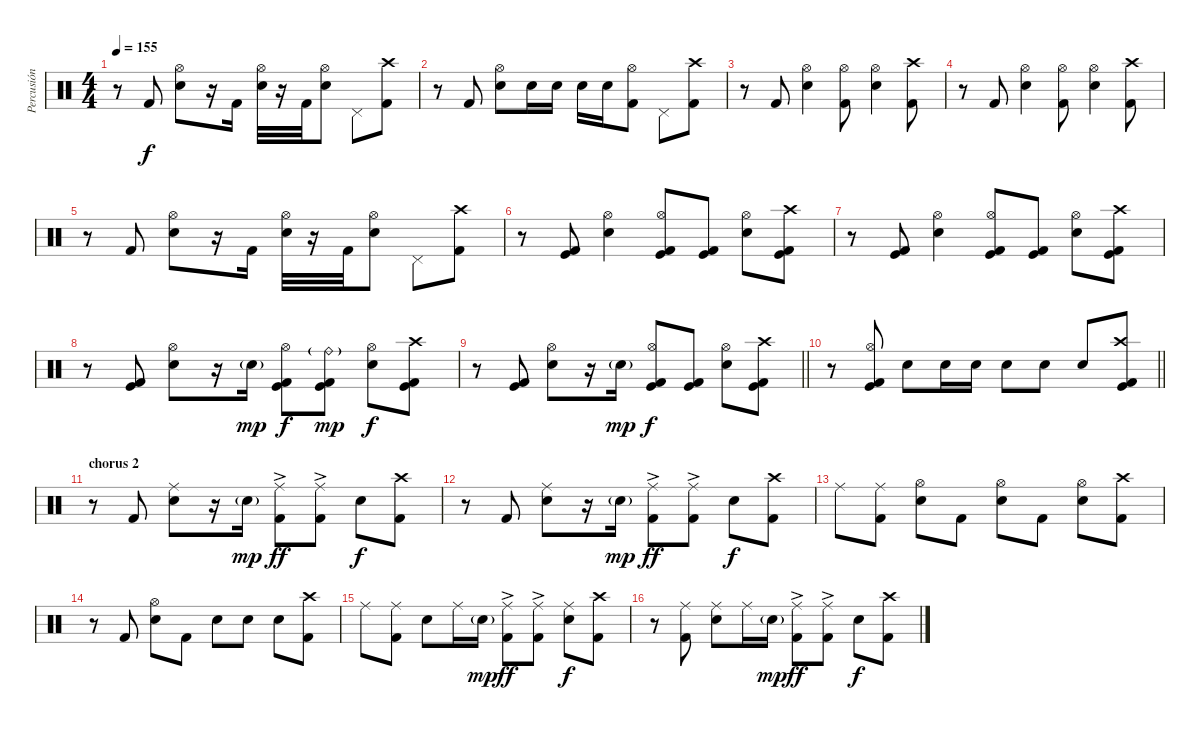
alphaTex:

\track ("Percusión" "Percusión") {instrument percussion}
\staff {score}
\articulation defaults
\ts (4 4)
\tempo 155
\clef neutral
\ks c
r.8{dy f} "Kick (hit) 2".8 ("Hi-Hat (open)" "Snare (hit) 2").8 r.16 "Kick (hit) 2".16 ("Hi-Hat (open)" "Snare (hit) 2").32 r.16 "Kick (hit) 2".32 ("Hi-Hat (open)" "Snare (hit) 2").8 "Pedal Hi-Hat (hit)".8 ("Crash high (hit)" "Kick (hit) 2").8 |
r.8 "Kick (hit) 2".8 ("Hi-Hat (open)" "Snare (hit) 2").8 "Snare (hit) 2".16 "Snare (hit) 2".16 "Snare (hit) 2".16 "Snare (hit) 2".16 ("Hi-Hat (open)" "Kick (hit) 2").8 "Pedal Hi-Hat (hit)".8 ("Crash high (hit)" "Kick (hit) 2").8 |
r.8 "Kick (hit) 2".8 ("Hi-Hat (open)" "Snare (hit) 2").4 ("Hi-Hat (open)" "Kick (hit) 2").8 ("Hi-Hat (open)" "Snare (hit) 2").4 ("Crash high (hit)" "Kick (hit) 2").8 |
r.8 "Kick (hit) 2".8 ("Hi-Hat (open)" "Snare (hit) 2").4 ("Hi-Hat (open)" "Kick (hit) 2").8 ("Hi-Hat (open)" "Snare (hit) 2").4 ("Crash high (hit)" "Kick (hit) 2").8 |
r.8 "Kick (hit) 2".8 ("Hi-Hat (open)" "Snare (hit) 2").8 r.16 "Kick (hit) 2".16 ("Hi-Hat (open)" "Snare (hit) 2").32 r.16 "Kick (hit) 2".32 ("Hi-Hat (open)" "Snare (hit) 2").8 "Pedal Hi-Hat (hit)".8 ("Crash high (hit)" "Kick (hit) 2").8 |
r.8 ("Kick (hit) 2" "Kick (hit)").8 ("Hi-Hat (open)" "Snare (hit) 2").4 ("Hi-Hat (open)" "Kick (hit) 2" "Kick (hit)").8 ("Kick (hit) 2" "Kick (hit)").8 ("Hi-Hat (open)" "Snare (hit) 2").8 ("Crash high (hit)" "Kick (hit) 2" "Kick (hit)").8 |
r.8 ("Kick (hit) 2" "Kick (hit)").8 ("Hi-Hat (open)" "Snare (hit) 2").4 ("Hi-Hat (open)" "Kick (hit) 2" "Kick (hit)").8 ("Kick (hit) 2" "Kick (hit)").8 ("Hi-Hat (open)" "Snare (hit) 2").8 ("Crash high (hit)" "Kick (hit) 2" "Kick (hit)").8 |
r.8 ("Kick (hit) 2" "Kick (hit)").8 ("Hi-Hat (open)" "Snare (hit) 2").8 r.16 "Snare (hit) 2"{g}.16{dy mp} ("Hi-Hat (open)" "Kick (hit) 2" "Kick (hit)").8{dy f} ("Ride (bell)"{g} "Kick (hit) 2" "Kick (hit)").8{dy mp} ("Hi-Hat (open)" "Snare (hit) 2").8{dy f} ("Crash high (hit)" "Kick (hit) 2" "Kick (hit)").8 |
\barLineRight lightlight
r.8 ("Kick (hit) 2" "Kick (hit)").8 ("Hi-Hat (open)" "Snare (hit) 2").8 r.16 "Snare (hit) 2"{g}.16{dy mp} ("Hi-Hat (open)" "Kick (hit) 2" "Kick (hit)").8{dy f} ("Kick (hit) 2" "Kick (hit)").8 ("Hi-Hat (open)" "Snare (hit) 2").8 ("Crash high (hit)" "Kick (hit) 2" "Kick (hit)").8 |
\barLineRight lightlight
r.8 ("Hi-Hat (open)" "Kick (hit) 2" "Kick (hit)").8 "Snare (hit) 2".8 "Snare (hit) 2".16 "Snare (hit) 2".16 "Snare (hit) 2".8 "Snare (hit) 2".8 "Snare (hit) 2".8 ("Crash high (hit)" "Kick (hit) 2" "Kick (hit)").8 |
\section ("" "chorus 2")
r.8 "Kick (hit) 2".8 ("Ride (middle)" "Snare (hit) 2").8 r.16 "Snare (hit) 2"{g}.16{dy mp} ("Ride (middle)"{ac} "Kick (hit) 2").8{dy ff} ("Ride (middle)"{ac} "Kick (hit) 2").8 "Snare (hit) 2".8{dy f} ("Crash high (hit)" "Kick (hit) 2").8 |
r.8 "Kick (hit) 2".8 ("Ride (middle)" "Snare (hit) 2").8 r.16 "Snare (hit) 2"{g}.16{dy mp} ("Ride (middle)"{ac} "Kick (hit) 2").8{dy ff} ("Ride (middle)"{ac} "Kick (hit) 2").8 "Snare (hit) 2".8{dy f} ("Crash high (hit)" "Kick (hit) 2").8 |
"Ride (middle)".8 ("Ride (middle)" "Kick (hit) 2").8 ("Hi-Hat (open)" "Snare (hit) 2").8 "Kick (hit) 2".8 ("Hi-Hat (open)" "Snare (hit) 2").8 "Kick (hit) 2".8 ("Hi-Hat (open)" "Snare (hit) 2").8 ("Crash high (hit)" "Kick (hit) 2").8 |
r.8 "Kick (hit) 2".8 ("Hi-Hat (open)" "Snare (hit) 2").8 "Kick (hit) 2".8 "Snare (hit) 2".8 "Snare (hit) 2".8 "Snare (hit) 2".8 ("Crash high (hit)" "Kick (hit) 2").8 |
"Ride (middle)".8 ("Ride (middle)" "Kick (hit) 2").8 "Snare (hit) 2".8 "Ride (middle)".16 "Snare (hit) 2"{g}.16{dy mp} ("Ride (middle)"{ac} "Kick (hit) 2").8{dy ff} ("Ride (middle)"{ac} "Kick (hit) 2").8 ("Ride (middle)" "Snare (hit) 2").8{dy f} ("Crash high (hit)" "Kick (hit) 2").8 |
r.8 ("Ride (middle)" "Kick (hit) 2").8 ("Ride (middle)" "Snare (hit) 2").8 "Ride (middle)".16 "Snare (hit) 2"{g}.16{dy mp} ("Ride (middle)"{ac} "Kick (hit) 2").8{dy ff} ("Ride (middle)"{ac} "Kick (hit) 2").8 "Snare (hit) 2".8{dy f} ("Crash high (hit)" "Kick (hit) 2").8
